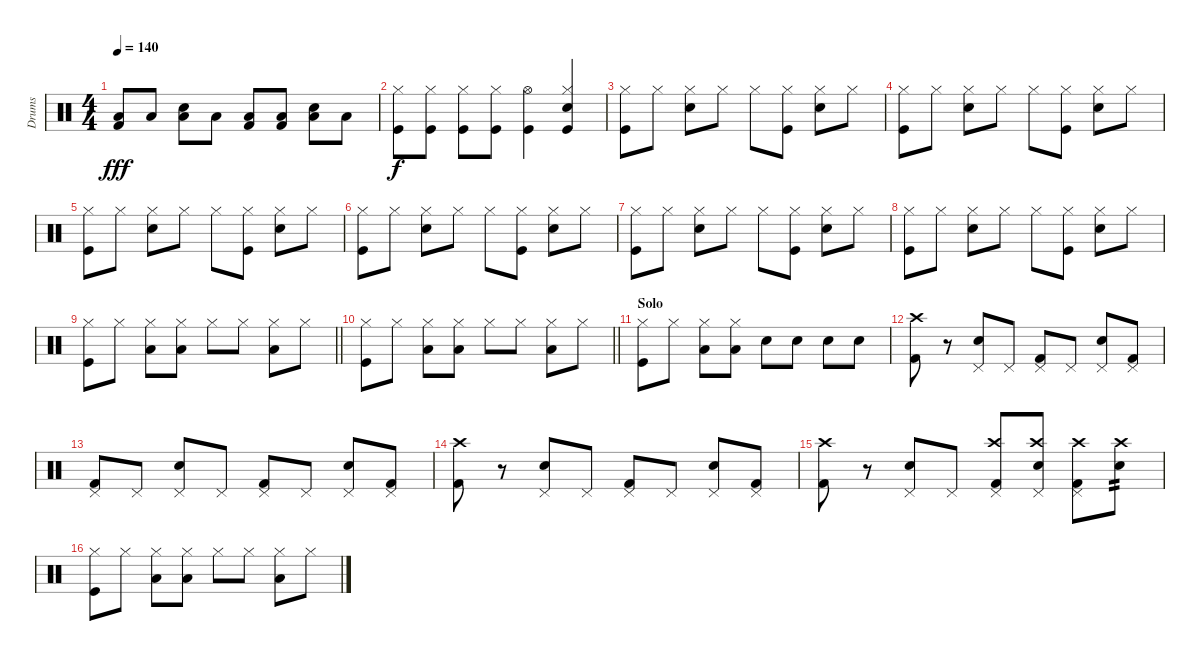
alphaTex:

\track ("Drums" "Drums") {instrument percussion}
\staff {score}
\articulation defaults
\ts (4 4)
\tempo 140
\clef neutral
\ks c
("Kick (hit) 2" "Low Floor Tom (hit)").8{dy fff} "Low Floor Tom (hit)".8 ("Snare (hit) 2" "Low Floor Tom (hit)").8 "Low Floor Tom (hit)".8 ("Kick (hit) 2" "Low Floor Tom (hit)").8 ("Kick (hit) 2" "Low Floor Tom (hit)").8 ("Snare (hit) 2" "Low Floor Tom (hit)").8 "Low Floor Tom (hit)".8 |
("Hi-Hat (closed)" "Kick (hit)").8{dy f} ("Hi-Hat (closed)" "Kick (hit)").8 ("Hi-Hat (closed)" "Kick (hit)").8 ("Hi-Hat (closed)" "Kick (hit)").8 ("Hi-Hat (open)" "Kick (hit)").4 ("Hi-Hat (closed)" "Snare (hit) 2" "Kick (hit)").4 |
("Hi-Hat (closed)" "Kick (hit)").8 "Hi-Hat (closed)".8 ("Hi-Hat (closed)" "Snare (hit) 2").8 "Hi-Hat (closed)".8 "Hi-Hat (closed)".8 ("Hi-Hat (closed)" "Kick (hit)").8 ("Hi-Hat (closed)" "Snare (hit) 2").8 "Hi-Hat (closed)".8 |
("Hi-Hat (closed)" "Kick (hit)").8 "Hi-Hat (closed)".8 ("Hi-Hat (closed)" "Snare (hit) 2").8 "Hi-Hat (closed)".8 "Hi-Hat (closed)".8 ("Hi-Hat (closed)" "Kick (hit)").8 ("Hi-Hat (closed)" "Snare (hit) 2").8 "Hi-Hat (closed)".8 |
("Hi-Hat (closed)" "Kick (hit)").8 "Hi-Hat (closed)".8 ("Hi-Hat (closed)" "Snare (hit) 2").8 "Hi-Hat (closed)".8 "Hi-Hat (closed)".8 ("Hi-Hat (closed)" "Kick (hit)").8 ("Hi-Hat (closed)" "Snare (hit) 2").8 "Hi-Hat (closed)".8 |
("Hi-Hat (closed)" "Kick (hit)").8 "Hi-Hat (closed)".8 ("Hi-Hat (closed)" "Snare (hit) 2").8 "Hi-Hat (closed)".8 "Hi-Hat (closed)".8 ("Hi-Hat (closed)" "Kick (hit)").8 ("Hi-Hat (closed)" "Snare (hit) 2").8 "Hi-Hat (closed)".8 |
("Hi-Hat (closed)" "Kick (hit)").8 "Hi-Hat (closed)".8 ("Hi-Hat (closed)" "Snare (hit) 2").8 "Hi-Hat (closed)".8 "Hi-Hat (closed)".8 ("Hi-Hat (closed)" "Kick (hit)").8 ("Hi-Hat (closed)" "Snare (hit) 2").8 "Hi-Hat (closed)".8 |
("Hi-Hat (closed)" "Kick (hit)").8 "Hi-Hat (closed)".8 ("Hi-Hat (closed)" "Snare (hit) 2").8 "Hi-Hat (closed)".8 "Hi-Hat (closed)".8 ("Hi-Hat (closed)" "Kick (hit)").8 ("Hi-Hat (closed)" "Snare (hit) 2").8 "Hi-Hat (closed)".8 |
\barLineRight lightlight
("Hi-Hat (closed)" "Kick (hit)").8 "Hi-Hat (closed)".8 ("Hi-Hat (closed)" "Low Tom (hit)").8 ("Hi-Hat (closed)" "Low Tom (hit)").8 "Hi-Hat (closed)".8 "Hi-Hat (closed)".8 ("Hi-Hat (closed)" "Low Tom (hit)").8 "Hi-Hat (closed)".8 |
\barLineRight lightlight
("Hi-Hat (closed)" "Kick (hit)").8 "Hi-Hat (closed)".8 ("Hi-Hat (closed)" "Low Tom (hit)").8 ("Hi-Hat (closed)" "Low Tom (hit)").8 "Hi-Hat (closed)".8 "Hi-Hat (closed)".8 ("Hi-Hat (closed)" "Low Tom (hit)").8 "Hi-Hat (closed)".8 |
\section ("" "Solo")
("Hi-Hat (closed)" "Kick (hit)").8 "Hi-Hat (closed)".8 ("Hi-Hat (closed)" "Low Tom (hit)").8 ("Hi-Hat (closed)" "Low Tom (hit)").8 "Snare (hit) 2".8 "Snare (hit) 2".8 "Snare (hit) 2".8 "Snare (hit) 2".8 |
("Kick (hit) 2" "Crash high (hit)").8 r.8 ("Pedal Hi-Hat (hit)" "Snare (hit) 2").8 "Pedal Hi-Hat (hit)".8 ("Kick (hit) 2" "Pedal Hi-Hat (hit)").8 "Pedal Hi-Hat (hit)".8 ("Snare (hit) 2" "Pedal Hi-Hat (hit)").8 ("Kick (hit) 2" "Pedal Hi-Hat (hit)").8 |
("Kick (hit) 2" "Pedal Hi-Hat (hit)").8 "Pedal Hi-Hat (hit)".8 ("Pedal Hi-Hat (hit)" "Snare (hit) 2").8 "Pedal Hi-Hat (hit)".8 ("Kick (hit) 2" "Pedal Hi-Hat (hit)").8 "Pedal Hi-Hat (hit)".8 ("Snare (hit) 2" "Pedal Hi-Hat (hit)").8 ("Kick (hit) 2" "Pedal Hi-Hat (hit)").8 |
("Kick (hit) 2" "Crash high (hit)").8 r.8 ("Pedal Hi-Hat (hit)" "Snare (hit) 2").8 "Pedal Hi-Hat (hit)".8 ("Kick (hit) 2" "Pedal Hi-Hat (hit)").8 "Pedal Hi-Hat (hit)".8 ("Snare (hit) 2" "Pedal Hi-Hat (hit)").8 ("Kick (hit) 2" "Pedal Hi-Hat (hit)").8 |
("Kick (hit) 2" "Crash high (hit)").8 r.8 ("Pedal Hi-Hat (hit)" "Snare (hit) 2").8 "Pedal Hi-Hat (hit)".8 ("Crash high (hit)" "Pedal Hi-Hat (hit)" "Kick (hit) 2").8 ("Crash high (hit)" "Pedal Hi-Hat (hit)" "Snare (hit) 2").8 ("Crash high (hit)" "Pedal Hi-Hat (hit)" "Kick (hit) 2").8 ("Crash high (hit)" "Snare (hit) 2").8{tp 2} |
("Hi-Hat (closed)" "Kick (hit)").8 "Hi-Hat (closed)".8 ("Hi-Hat (closed)" "Low Tom (hit)").8 ("Hi-Hat (closed)" "Low Tom (hit)").8 "Hi-Hat (closed)".8 "Hi-Hat (closed)".8 ("Hi-Hat (closed)" "Low Tom (hit)").8 "Hi-Hat (closed)".8
